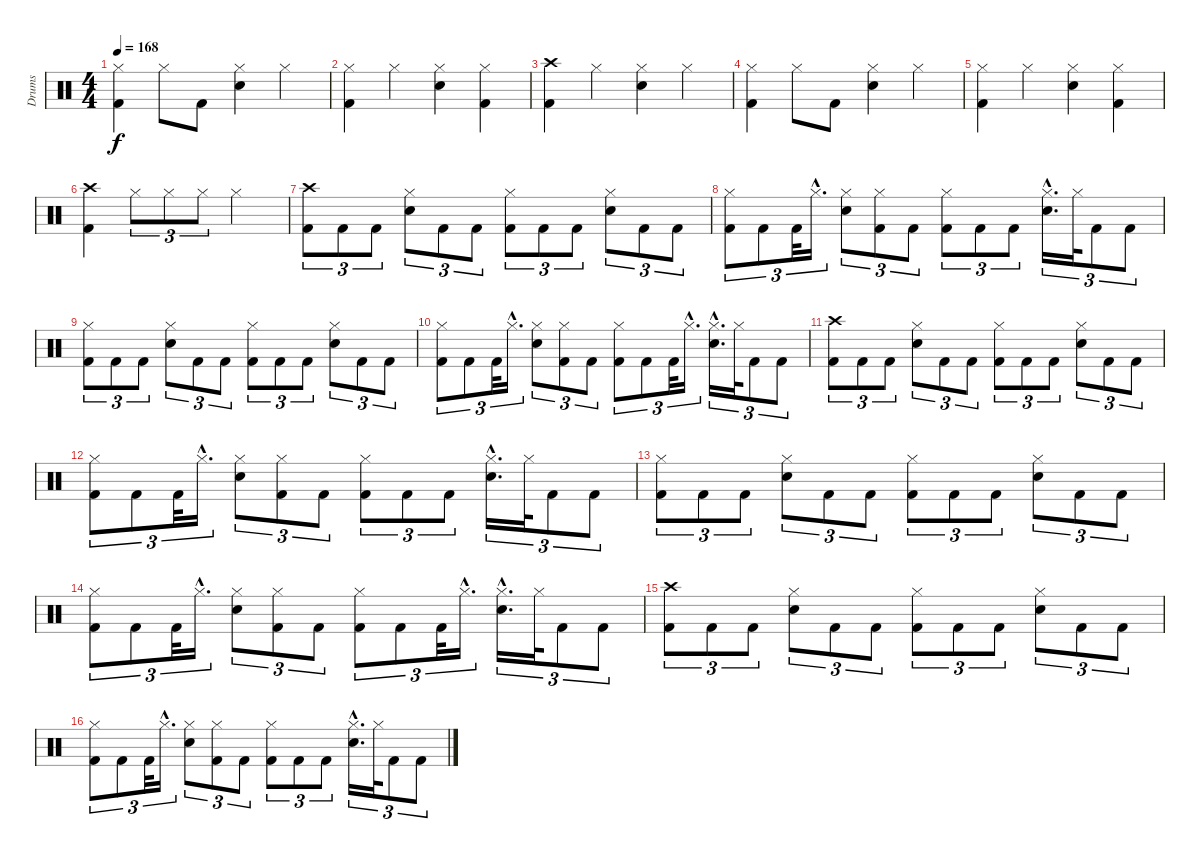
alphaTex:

\track ("Drums" "Drums") {instrument percussion}
\staff {score}
\articulation defaults
\ts (4 4)
\tempo 168
\clef neutral
\ks c
("Kick (hit) 2" "Hi-Hat (closed)").4{dy f} "Hi-Hat (closed)".8 "Kick (hit) 2".8 ("Electric Snare (hit)" "Hi-Hat (closed)").4 "Hi-Hat (closed)".4 |
("Kick (hit) 2" "Hi-Hat (closed)").4 "Hi-Hat (closed)".4 ("Electric Snare (hit)" "Hi-Hat (closed)").4 ("Kick (hit) 2" "Hi-Hat (closed)").4 |
("Kick (hit) 2" "Crash high (hit)").4 "Hi-Hat (closed)".4 ("Hi-Hat (closed)" "Electric Snare (hit)").4 "Hi-Hat (closed)".4 |
("Kick (hit) 2" "Hi-Hat (closed)").4 "Hi-Hat (closed)".8 "Kick (hit) 2".8 ("Electric Snare (hit)" "Hi-Hat (closed)").4 "Hi-Hat (closed)".4 |
("Kick (hit) 2" "Hi-Hat (closed)").4 "Hi-Hat (closed)".4 ("Electric Snare (hit)" "Hi-Hat (closed)").4 ("Kick (hit) 2" "Hi-Hat (closed)").4 |
("Kick (hit) 2" "Crash high (hit)").4 "Hi-Hat (closed)".8{tu (3 2)} "Hi-Hat (closed)".8{tu (3 2)} "Hi-Hat (closed)".8{tu (3 2)} "Hi-Hat (closed)".2 |
("Kick (hit) 2" "Crash high (hit)").8{tu (3 2)} "Kick (hit) 2".8{tu (3 2)} "Kick (hit) 2".8{tu (3 2)} ("Hi-Hat (closed)" "Electric Snare (hit)").8{tu (3 2)} "Kick (hit) 2".8{tu (3 2)} "Kick (hit) 2".8{tu (3 2)} ("Kick (hit) 2" "Hi-Hat (closed)").8{tu (3 2)} "Kick (hit) 2".8{tu (3 2)} "Kick (hit) 2".8{tu (3 2)} ("Hi-Hat (closed)" "Electric Snare (hit)").8{tu (3 2)} "Kick (hit) 2".8{tu (3 2)} "Kick (hit) 2".8{tu (3 2)} |
("Kick (hit) 2" "Hi-Hat (closed)").8{tu (3 2)} "Kick (hit) 2".8{tu (3 2)} "Kick (hit) 2".32{tu (3 2)} "Hi-Hat (closed)"{hac}.16{d tu (3 2)} ("Electric Snare (hit)" "Hi-Hat (closed)").8{tu (3 2)} ("Kick (hit) 2" "Hi-Hat (closed)").8{tu (3 2)} "Kick (hit) 2".8{tu (3 2)} ("Kick (hit) 2" "Hi-Hat (closed)").8{tu (3 2)} "Kick (hit) 2".8{tu (3 2)} "Kick (hit) 2".8{tu (3 2)} ("Electric Snare (hit)"{hac} "Hi-Hat (closed)"{hac}).16{d tu (3 2)} "Hi-Hat (closed)".32{tu (3 2)} "Kick (hit) 2".8{tu (3 2)} "Kick (hit) 2".8{tu (3 2)} |
("Kick (hit) 2" "Hi-Hat (closed)").8{tu (3 2)} "Kick (hit) 2".8{tu (3 2)} "Kick (hit) 2".8{tu (3 2)} ("Electric Snare (hit)" "Hi-Hat (closed)").8{tu (3 2)} "Kick (hit) 2".8{tu (3 2)} "Kick (hit) 2".8{tu (3 2)} ("Kick (hit) 2" "Hi-Hat (closed)").8{tu (3 2)} "Kick (hit) 2".8{tu (3 2)} "Kick (hit) 2".8{tu (3 2)} ("Electric Snare (hit)" "Hi-Hat (closed)").8{tu (3 2)} "Kick (hit) 2".8{tu (3 2)} "Kick (hit) 2".8{tu (3 2)} |
("Kick (hit) 2" "Hi-Hat (closed)").8{tu (3 2)} "Kick (hit) 2".8{tu (3 2)} "Kick (hit) 2".32{tu (3 2)} "Hi-Hat (closed)"{hac}.16{d tu (3 2)} ("Electric Snare (hit)" "Hi-Hat (closed)").8{tu (3 2)} ("Kick (hit) 2" "Hi-Hat (closed)").8{tu (3 2)} "Kick (hit) 2".8{tu (3 2)} ("Kick (hit) 2" "Hi-Hat (closed)").8{tu (3 2)} "Kick (hit) 2".8{tu (3 2)} "Kick (hit) 2".32{tu (3 2)} "Hi-Hat (closed)"{hac}.16{d tu (3 2)} ("Electric Snare (hit)"{hac} "Hi-Hat (closed)"{hac}).16{d tu (3 2)} "Hi-Hat (closed)".32{tu (3 2)} "Kick (hit) 2".8{tu (3 2)} "Kick (hit) 2".8{tu (3 2)} |
("Kick (hit) 2" "Crash high (hit)").8{tu (3 2)} "Kick (hit) 2".8{tu (3 2)} "Kick (hit) 2".8{tu (3 2)} ("Hi-Hat (closed)" "Electric Snare (hit)").8{tu (3 2)} "Kick (hit) 2".8{tu (3 2)} "Kick (hit) 2".8{tu (3 2)} ("Kick (hit) 2" "Hi-Hat (closed)").8{tu (3 2)} "Kick (hit) 2".8{tu (3 2)} "Kick (hit) 2".8{tu (3 2)} ("Hi-Hat (closed)" "Electric Snare (hit)").8{tu (3 2)} "Kick (hit) 2".8{tu (3 2)} "Kick (hit) 2".8{tu (3 2)} |
("Kick (hit) 2" "Hi-Hat (closed)").8{tu (3 2)} "Kick (hit) 2".8{tu (3 2)} "Kick (hit) 2".32{tu (3 2)} "Hi-Hat (closed)"{hac}.16{d tu (3 2)} ("Electric Snare (hit)" "Hi-Hat (closed)").8{tu (3 2)} ("Kick (hit) 2" "Hi-Hat (closed)").8{tu (3 2)} "Kick (hit) 2".8{tu (3 2)} ("Kick (hit) 2" "Hi-Hat (closed)").8{tu (3 2)} "Kick (hit) 2".8{tu (3 2)} "Kick (hit) 2".8{tu (3 2)} ("Electric Snare (hit)"{hac} "Hi-Hat (closed)"{hac}).16{d tu (3 2)} "Hi-Hat (closed)".32{tu (3 2)} "Kick (hit) 2".8{tu (3 2)} "Kick (hit) 2".8{tu (3 2)} |
("Kick (hit) 2" "Hi-Hat (closed)").8{tu (3 2)} "Kick (hit) 2".8{tu (3 2)} "Kick (hit) 2".8{tu (3 2)} ("Electric Snare (hit)" "Hi-Hat (closed)").8{tu (3 2)} "Kick (hit) 2".8{tu (3 2)} "Kick (hit) 2".8{tu (3 2)} ("Kick (hit) 2" "Hi-Hat (closed)").8{tu (3 2)} "Kick (hit) 2".8{tu (3 2)} "Kick (hit) 2".8{tu (3 2)} ("Electric Snare (hit)" "Hi-Hat (closed)").8{tu (3 2)} "Kick (hit) 2".8{tu (3 2)} "Kick (hit) 2".8{tu (3 2)} |
("Kick (hit) 2" "Hi-Hat (closed)").8{tu (3 2)} "Kick (hit) 2".8{tu (3 2)} "Kick (hit) 2".32{tu (3 2)} "Hi-Hat (closed)"{hac}.16{d tu (3 2)} ("Electric Snare (hit)" "Hi-Hat (closed)").8{tu (3 2)} ("Kick (hit) 2" "Hi-Hat (closed)").8{tu (3 2)} "Kick (hit) 2".8{tu (3 2)} ("Kick (hit) 2" "Hi-Hat (closed)").8{tu (3 2)} "Kick (hit) 2".8{tu (3 2)} "Kick (hit) 2".32{tu (3 2)} "Hi-Hat (closed)"{hac}.16{d tu (3 2)} ("Electric Snare (hit)"{hac} "Hi-Hat (closed)"{hac}).16{d tu (3 2)} "Hi-Hat (closed)".32{tu (3 2)} "Kick (hit) 2".8{tu (3 2)} "Kick (hit) 2".8{tu (3 2)} |
("Kick (hit) 2" "Crash high (hit)").8{tu (3 2)} "Kick (hit) 2".8{tu (3 2)} "Kick (hit) 2".8{tu (3 2)} ("Hi-Hat (closed)" "Electric Snare (hit)").8{tu (3 2)} "Kick (hit) 2".8{tu (3 2)} "Kick (hit) 2".8{tu (3 2)} ("Kick (hit) 2" "Hi-Hat (closed)").8{tu (3 2)} "Kick (hit) 2".8{tu (3 2)} "Kick (hit) 2".8{tu (3 2)} ("Hi-Hat (closed)" "Electric Snare (hit)").8{tu (3 2)} "Kick (hit) 2".8{tu (3 2)} "Kick (hit) 2".8{tu (3 2)} |
("Kick (hit) 2" "Hi-Hat (closed)").8{tu (3 2)} "Kick (hit) 2".8{tu (3 2)} "Kick (hit) 2".32{tu (3 2)} "Hi-Hat (closed)"{hac}.16{d tu (3 2)} ("Electric Snare (hit)" "Hi-Hat (closed)").8{tu (3 2)} ("Kick (hit) 2" "Hi-Hat (closed)").8{tu (3 2)} "Kick (hit) 2".8{tu (3 2)} ("Kick (hit) 2" "Hi-Hat (closed)").8{tu (3 2)} "Kick (hit) 2".8{tu (3 2)} "Kick (hit) 2".8{tu (3 2)} ("Electric Snare (hit)"{hac} "Hi-Hat (closed)"{hac}).16{d tu (3 2)} "Hi-Hat (closed)".32{tu (3 2)} "Kick (hit) 2".8{tu (3 2)} "Kick (hit) 2".8{tu (3 2)}
